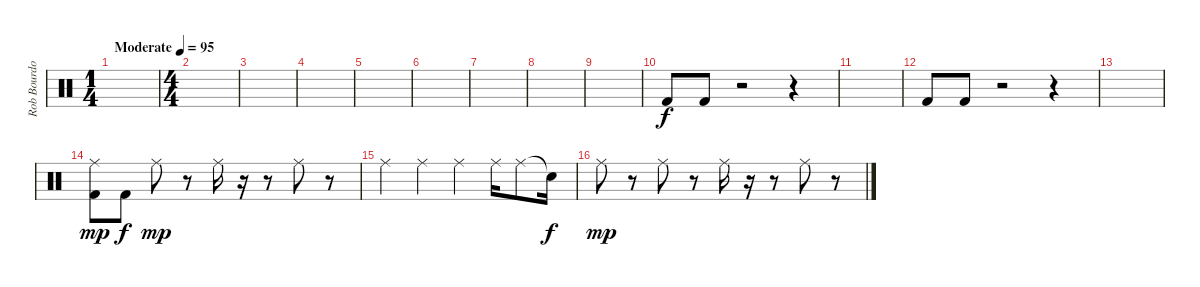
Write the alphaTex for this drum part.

\track ("Rob Bourdon" "Rob Bourdo") {instrument percussion}
\staff {score}
\articulation defaults
\ts (1 4)
\tempo (95 "Moderate")
\clef neutral
\ks c
|
\ts (4 4)
|
|
|
|
|
|
|
|
"Kick (hit) 2".8 "Kick (hit) 2".8 r.2 r.4 |
|
"Kick (hit) 2".8 "Kick (hit) 2".8 r.2 r.4 |
|
("Ride (middle)" "Kick (hit) 2").8{dy mp} "Kick (hit) 2".8{dy f} "Ride (middle)".8{dy mp} r.8 "Ride (middle)".16 r.16 r.8 "Ride (middle)".8 r.8 |
"Ride (middle)".4 "Ride (middle)".4 "Ride (middle)".4 "Ride (middle)".16 "Ride (middle)".8 "Snare (hit)"{t}.16{dy f} |
"Ride (middle)".8{dy mp} r.8 "Ride (middle)".8 r.8 "Ride (middle)".16 r.16 r.8 "Ride (middle)".8 r.8
